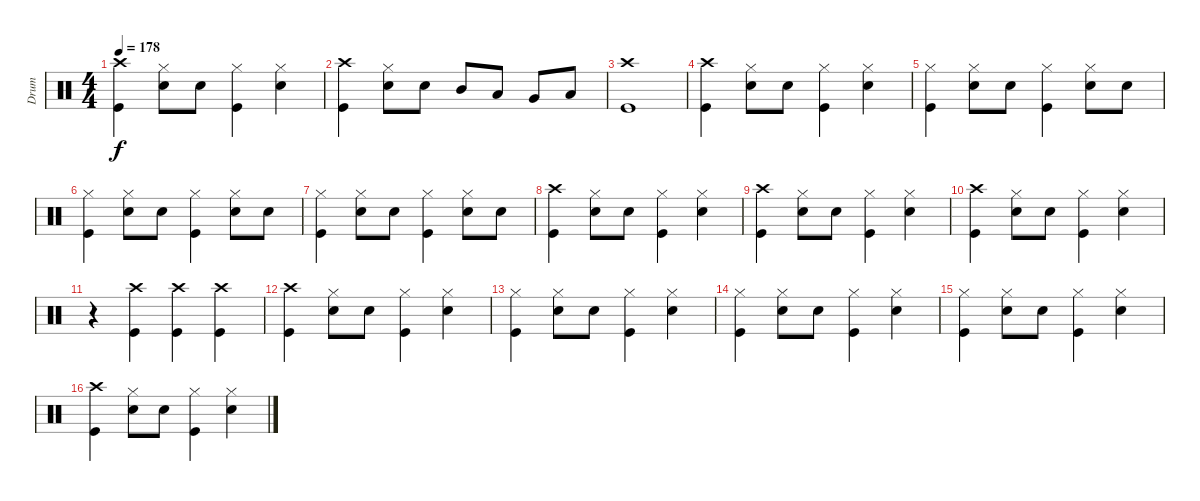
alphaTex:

\track ("Drum" "Drum") {instrument percussion}
\staff {score}
\articulation defaults
\ts (4 4)
\tempo 178
\clef neutral
\ks c
("Crash high (hit)" "Kick (hit)").4{dy f} ("Hi-Hat (closed)" "Snare (hit) 2").8 "Snare (hit) 2".8 ("Hi-Hat (closed)" "Kick (hit)").4 ("Hi-Hat (closed)" "Snare (hit) 2").4 |
("Crash high (hit)" "Kick (hit)").4 ("Hi-Hat (closed)" "Snare (hit) 2").8 "Snare (hit) 2".8 "Mid Tom (hit)".8 "Low Tom (hit)".8 "Very Low Tom (hit)".8 "Low Floor Tom (hit)".8 |
("Crash high (hit)" "Kick (hit)").1 |
("Crash high (hit)" "Kick (hit)").4 ("Hi-Hat (closed)" "Snare (hit) 2").8 "Snare (hit) 2".8 ("Hi-Hat (closed)" "Kick (hit)").4 ("Hi-Hat (closed)" "Snare (hit) 2").4 |
("Hi-Hat (closed)" "Kick (hit)").4 ("Hi-Hat (closed)" "Snare (hit) 2").8 "Snare (hit) 2".8 ("Hi-Hat (closed)" "Kick (hit)").4 ("Hi-Hat (closed)" "Snare (hit) 2").8 "Snare (hit) 2".8 |
("Hi-Hat (closed)" "Kick (hit)").4 ("Hi-Hat (closed)" "Snare (hit) 2").8 "Snare (hit) 2".8 ("Hi-Hat (closed)" "Kick (hit)").4 ("Hi-Hat (closed)" "Snare (hit) 2").8 "Snare (hit) 2".8 |
("Hi-Hat (closed)" "Kick (hit)").4 ("Hi-Hat (closed)" "Snare (hit) 2").8 "Snare (hit) 2".8 ("Hi-Hat (closed)" "Kick (hit)").4 ("Hi-Hat (closed)" "Snare (hit) 2").8 "Snare (hit) 2".8 |
("Crash high (hit)" "Kick (hit)").4 ("Hi-Hat (closed)" "Snare (hit) 2").8 "Snare (hit) 2".8 ("Hi-Hat (closed)" "Kick (hit)").4 ("Hi-Hat (closed)" "Snare (hit) 2").4 |
("Crash high (hit)" "Kick (hit)").4 ("Hi-Hat (closed)" "Snare (hit) 2").8 "Snare (hit) 2".8 ("Hi-Hat (closed)" "Kick (hit)").4 ("Hi-Hat (closed)" "Snare (hit) 2").4 |
("Crash high (hit)" "Kick (hit)").4 ("Hi-Hat (closed)" "Snare (hit) 2").8 "Snare (hit) 2".8 ("Hi-Hat (closed)" "Kick (hit)").4 ("Hi-Hat (closed)" "Snare (hit) 2").4 |
r.4 ("Crash high (hit)" "Kick (hit)").4 ("Crash high (hit)" "Kick (hit)").4 ("Crash high (hit)" "Kick (hit)").4 |
("Crash high (hit)" "Kick (hit)").4 ("Hi-Hat (closed)" "Snare (hit) 2").8 "Snare (hit) 2".8 ("Hi-Hat (closed)" "Kick (hit)").4 ("Hi-Hat (closed)" "Snare (hit) 2").4 |
("Hi-Hat (closed)" "Kick (hit)").4 ("Hi-Hat (closed)" "Snare (hit) 2").8 "Snare (hit) 2".8 ("Hi-Hat (closed)" "Kick (hit)").4 ("Hi-Hat (closed)" "Snare (hit) 2").4 |
("Hi-Hat (closed)" "Kick (hit)").4 ("Hi-Hat (closed)" "Snare (hit) 2").8 "Snare (hit) 2".8 ("Hi-Hat (closed)" "Kick (hit)").4 ("Hi-Hat (closed)" "Snare (hit) 2").4 |
("Hi-Hat (closed)" "Kick (hit)").4 ("Hi-Hat (closed)" "Snare (hit) 2").8 "Snare (hit) 2".8 ("Hi-Hat (closed)" "Kick (hit)").4 ("Hi-Hat (closed)" "Snare (hit) 2").4 |
("Crash high (hit)" "Kick (hit)").4 ("Hi-Hat (closed)" "Snare (hit) 2").8 "Snare (hit) 2".8 ("Hi-Hat (closed)" "Kick (hit)").4 ("Hi-Hat (closed)" "Snare (hit) 2").4
